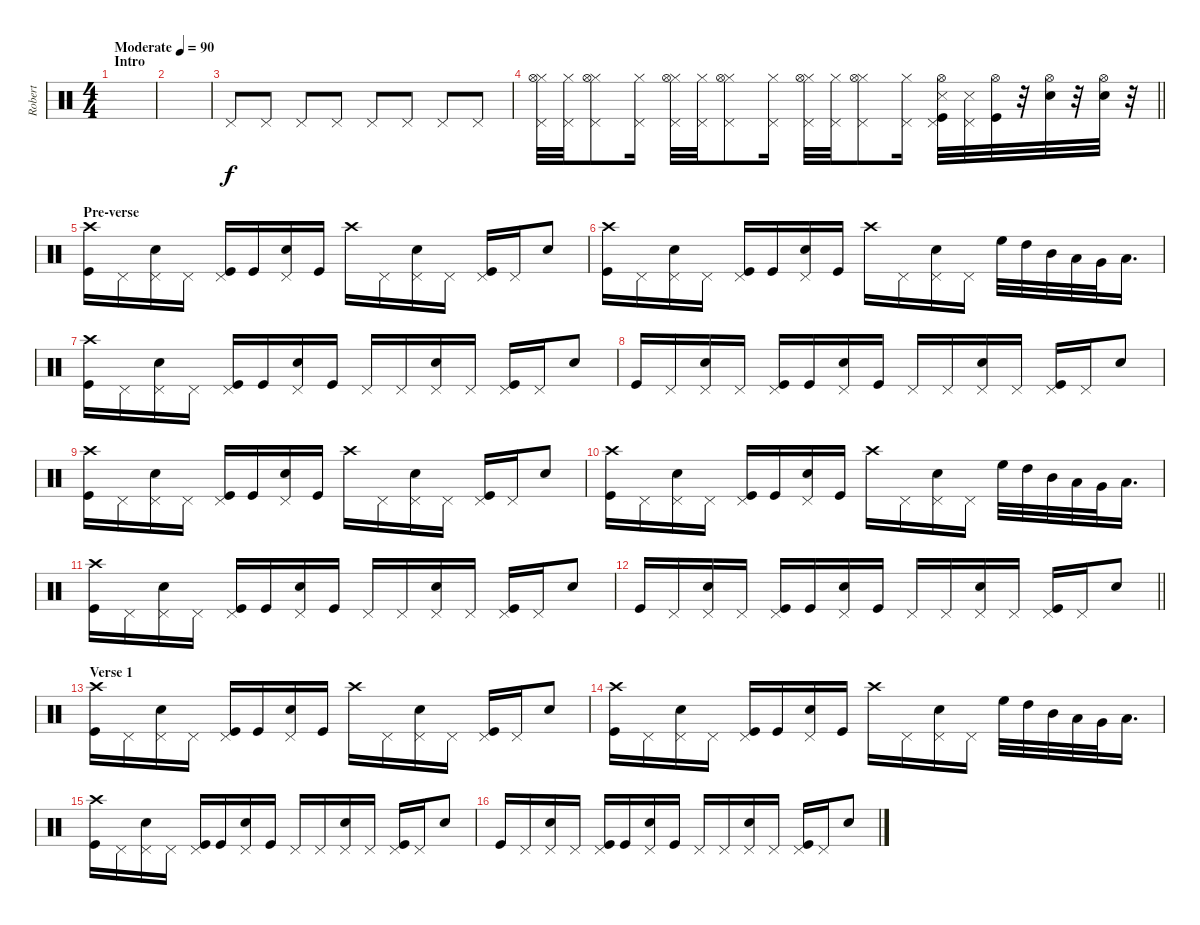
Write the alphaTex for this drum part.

\track ("Robert" "Robert") {instrument percussion}
\staff {score}
\articulation defaults
\ts (4 4)
\section ("" "Intro")
\tempo (90 "Moderate")
\clef neutral
\ks c
|
|
"Pedal Hi-Hat (hit)".8 "Pedal Hi-Hat (hit)".8 "Pedal Hi-Hat (hit)".8 "Pedal Hi-Hat (hit)".8 "Pedal Hi-Hat (hit)".8 "Pedal Hi-Hat (hit)".8 "Pedal Hi-Hat (hit)".8 "Pedal Hi-Hat (hit)".8 |
\barLineRight lightlight
("Pedal Hi-Hat (hit)" "Hi-Hat (closed)" "Hi-Hat (open)").32 ("Pedal Hi-Hat (hit)" "Hi-Hat (closed)").32 ("Pedal Hi-Hat (hit)" "Hi-Hat (closed)" "Hi-Hat (open)").8 ("Pedal Hi-Hat (hit)" "Hi-Hat (closed)").16 ("Pedal Hi-Hat (hit)" "Hi-Hat (closed)" "Hi-Hat (open)").32 ("Pedal Hi-Hat (hit)" "Hi-Hat (closed)").32 ("Pedal Hi-Hat (hit)" "Hi-Hat (closed)" "Hi-Hat (open)").8 ("Pedal Hi-Hat (hit)" "Hi-Hat (closed)").16 ("Pedal Hi-Hat (hit)" "Hi-Hat (closed)" "Hi-Hat (open)").32 ("Pedal Hi-Hat (hit)" "Hi-Hat (closed)").32 ("Pedal Hi-Hat (hit)" "Hi-Hat (closed)" "Hi-Hat (open)").8 ("Pedal Hi-Hat (hit)" "Hi-Hat (closed)").16 ("Kick (hit)" "Pedal Hi-Hat (hit)" "Snare (side stick) 3" "Hi-Hat (open)").32 ("Pedal Hi-Hat (hit)" "Snare (side stick) 3").32 ("Kick (hit)" "Hi-Hat (open)").32 r.32 ("Snare (hit) 2" "Hi-Hat (open)").32 r.32 ("Snare (hit) 2" "Hi-Hat (open)").32 r.32 |
\section ("" "Pre-verse")
("Crash high (hit)" "Kick (hit)").16 "Pedal Hi-Hat (hit)".16 ("Pedal Hi-Hat (hit)" "Snare (hit) 2").16 "Pedal Hi-Hat (hit)".16 ("Pedal Hi-Hat (hit)" "Kick (hit)").16 "Kick (hit)".16 ("Pedal Hi-Hat (hit)" "Snare (hit) 2").16 "Kick (hit)".16 "Crash high (hit)".16 "Pedal Hi-Hat (hit)".16 ("Pedal Hi-Hat (hit)" "Snare (hit) 2").16 "Pedal Hi-Hat (hit)".16 ("Pedal Hi-Hat (hit)" "Kick (hit)").16 "Pedal Hi-Hat (hit)".16 "Snare (hit) 2".8 |
("Crash high (hit)" "Kick (hit)").16 "Pedal Hi-Hat (hit)".16 ("Pedal Hi-Hat (hit)" "Snare (hit) 2").16 "Pedal Hi-Hat (hit)".16 ("Pedal Hi-Hat (hit)" "Kick (hit)").16 "Kick (hit)".16 ("Pedal Hi-Hat (hit)" "Snare (hit) 2").16 "Kick (hit)".16 "Crash high (hit)".16 "Pedal Hi-Hat (hit)".16 ("Pedal Hi-Hat (hit)" "Snare (hit) 2").16 "Pedal Hi-Hat (hit)".16 "High Floor Tom (hit)".32 "High Tom (hit)".32 "Mid Tom (hit)".32 "Low Tom (hit)".32 "Very Low Tom (hit)".32 "Low Floor Tom (hit)".16{d} |
("Crash high (hit)" "Kick (hit)").16 "Pedal Hi-Hat (hit)".16 ("Pedal Hi-Hat (hit)" "Snare (hit) 2").16 "Pedal Hi-Hat (hit)".16 ("Pedal Hi-Hat (hit)" "Kick (hit)").16 "Kick (hit)".16 ("Pedal Hi-Hat (hit)" "Snare (hit) 2").16 "Kick (hit)".16 "Pedal Hi-Hat (hit)".16 "Pedal Hi-Hat (hit)".16 ("Pedal Hi-Hat (hit)" "Snare (hit) 2").16 "Pedal Hi-Hat (hit)".16 ("Pedal Hi-Hat (hit)" "Kick (hit)").16 "Pedal Hi-Hat (hit)".16 "Snare (hit) 2".8 |
"Kick (hit)".16 "Pedal Hi-Hat (hit)".16 ("Pedal Hi-Hat (hit)" "Snare (hit) 2").16 "Pedal Hi-Hat (hit)".16 ("Pedal Hi-Hat (hit)" "Kick (hit)").16 "Kick (hit)".16 ("Pedal Hi-Hat (hit)" "Snare (hit) 2").16 "Kick (hit)".16 "Pedal Hi-Hat (hit)".16 "Pedal Hi-Hat (hit)".16 ("Pedal Hi-Hat (hit)" "Snare (hit) 2").16 "Pedal Hi-Hat (hit)".16 ("Pedal Hi-Hat (hit)" "Kick (hit)").16 "Pedal Hi-Hat (hit)".16 "Snare (hit) 2".8 |
("Crash high (hit)" "Kick (hit)").16 "Pedal Hi-Hat (hit)".16 ("Pedal Hi-Hat (hit)" "Snare (hit) 2").16 "Pedal Hi-Hat (hit)".16 ("Pedal Hi-Hat (hit)" "Kick (hit)").16 "Kick (hit)".16 ("Pedal Hi-Hat (hit)" "Snare (hit) 2").16 "Kick (hit)".16 "Crash high (hit)".16 "Pedal Hi-Hat (hit)".16 ("Pedal Hi-Hat (hit)" "Snare (hit) 2").16 "Pedal Hi-Hat (hit)".16 ("Pedal Hi-Hat (hit)" "Kick (hit)").16 "Pedal Hi-Hat (hit)".16 "Snare (hit) 2".8 |
("Crash high (hit)" "Kick (hit)").16 "Pedal Hi-Hat (hit)".16 ("Pedal Hi-Hat (hit)" "Snare (hit) 2").16 "Pedal Hi-Hat (hit)".16 ("Pedal Hi-Hat (hit)" "Kick (hit)").16 "Kick (hit)".16 ("Pedal Hi-Hat (hit)" "Snare (hit) 2").16 "Kick (hit)".16 "Crash high (hit)".16 "Pedal Hi-Hat (hit)".16 ("Pedal Hi-Hat (hit)" "Snare (hit) 2").16 "Pedal Hi-Hat (hit)".16 "High Floor Tom (hit)".32 "High Tom (hit)".32 "Mid Tom (hit)".32 "Low Tom (hit)".32 "Very Low Tom (hit)".32 "Low Floor Tom (hit)".16{d} |
("Crash high (hit)" "Kick (hit)").16 "Pedal Hi-Hat (hit)".16 ("Pedal Hi-Hat (hit)" "Snare (hit) 2").16 "Pedal Hi-Hat (hit)".16 ("Pedal Hi-Hat (hit)" "Kick (hit)").16 "Kick (hit)".16 ("Pedal Hi-Hat (hit)" "Snare (hit) 2").16 "Kick (hit)".16 "Pedal Hi-Hat (hit)".16 "Pedal Hi-Hat (hit)".16 ("Pedal Hi-Hat (hit)" "Snare (hit) 2").16 "Pedal Hi-Hat (hit)".16 ("Pedal Hi-Hat (hit)" "Kick (hit)").16 "Pedal Hi-Hat (hit)".16 "Snare (hit) 2".8 |
\barLineRight lightlight "Kick (hit)".16 "Pedal Hi-Hat (hit)".16
("Pedal Hi-Hat (hit)" "Snare (hit) 2").16 "Pedal Hi-Hat (hit)".16 ("Pedal Hi-Hat (hit)" "Kick (hit)").16 "Kick (hit)".16 ("Pedal Hi-Hat (hit)" "Snare (hit) 2").16 "Kick (hit)".16 "Pedal Hi-Hat (hit)".16 "Pedal Hi-Hat (hit)".16 ("Pedal Hi-Hat (hit)" "Snare (hit) 2").16 "Pedal Hi-Hat (hit)".16 ("Pedal Hi-Hat (hit)" "Kick (hit)").16 "Pedal Hi-Hat (hit)".16 "Snare (hit) 2".8 |
\section ("" "Verse 1")
("Crash high (hit)" "Kick (hit)").16 "Pedal Hi-Hat (hit)".16 ("Pedal Hi-Hat (hit)" "Snare (hit) 2").16 "Pedal Hi-Hat (hit)".16 ("Pedal Hi-Hat (hit)" "Kick (hit)").16 "Kick (hit)".16 ("Pedal Hi-Hat (hit)" "Snare (hit) 2").16 "Kick (hit)".16 "Crash high (hit)".16 "Pedal Hi-Hat (hit)".16 ("Pedal Hi-Hat (hit)" "Snare (hit) 2").16 "Pedal Hi-Hat (hit)".16 ("Pedal Hi-Hat (hit)" "Kick (hit)").16 "Pedal Hi-Hat (hit)".16 "Snare (hit) 2".8 |
("Crash high (hit)" "Kick (hit)").16 "Pedal Hi-Hat (hit)".16 ("Pedal Hi-Hat (hit)" "Snare (hit) 2").16 "Pedal Hi-Hat (hit)".16 ("Pedal Hi-Hat (hit)" "Kick (hit)").16 "Kick (hit)".16 ("Pedal Hi-Hat (hit)" "Snare (hit) 2").16 "Kick (hit)".16 "Crash high (hit)".16 "Pedal Hi-Hat (hit)".16 ("Pedal Hi-Hat (hit)" "Snare (hit) 2").16 "Pedal Hi-Hat (hit)".16 "High Floor Tom (hit)".32 "High Tom (hit)".32 "Mid Tom (hit)".32 "Low Tom (hit)".32 "Very Low Tom (hit)".32 "Low Floor Tom (hit)".16{d} |
("Crash high (hit)" "Kick (hit)").16 "Pedal Hi-Hat (hit)".16 ("Pedal Hi-Hat (hit)" "Snare (hit) 2").16 "Pedal Hi-Hat (hit)".16 ("Pedal Hi-Hat (hit)" "Kick (hit)").16 "Kick (hit)".16 ("Pedal Hi-Hat (hit)" "Snare (hit) 2").16 "Kick (hit)".16 "Pedal Hi-Hat (hit)".16 "Pedal Hi-Hat (hit)".16 ("Pedal Hi-Hat (hit)" "Snare (hit) 2").16 "Pedal Hi-Hat (hit)".16 ("Pedal Hi-Hat (hit)" "Kick (hit)").16 "Pedal Hi-Hat (hit)".16 "Snare (hit) 2".8 |
"Kick (hit)".16 "Pedal Hi-Hat (hit)".16 ("Pedal Hi-Hat (hit)" "Snare (hit) 2").16 "Pedal Hi-Hat (hit)".16 ("Pedal Hi-Hat (hit)" "Kick (hit)").16 "Kick (hit)".16 ("Pedal Hi-Hat (hit)" "Snare (hit) 2").16 "Kick (hit)".16 "Pedal Hi-Hat (hit)".16 "Pedal Hi-Hat (hit)".16 ("Pedal Hi-Hat (hit)" "Snare (hit) 2").16 "Pedal Hi-Hat (hit)".16 ("Pedal Hi-Hat (hit)" "Kick (hit)").16 "Pedal Hi-Hat (hit)".16 "Snare (hit) 2".8
